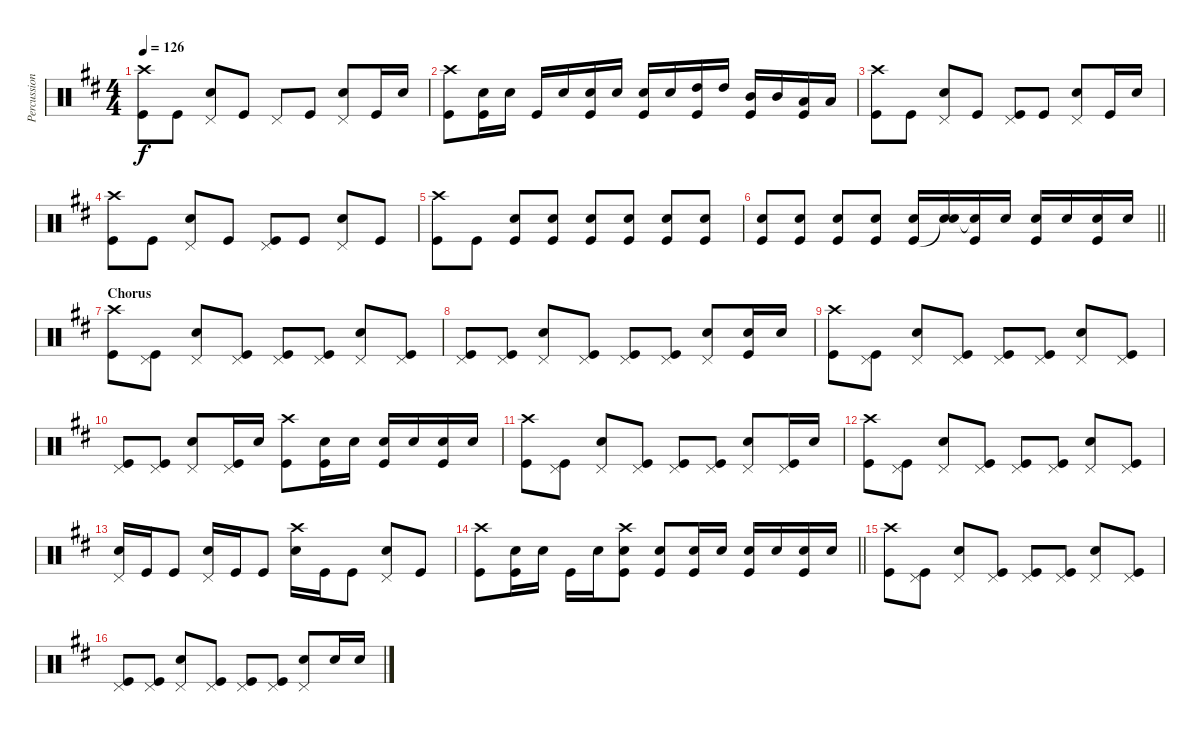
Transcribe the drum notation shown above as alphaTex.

\track ("Percussion" "Percussion") {instrument percussion}
\staff {score}
\articulation defaults
\ts (4 4)
\tempo 126
\clef neutral
\ks d
("Crash high (hit)" "Kick (hit)").8{dy f} "Kick (hit)".8 ("Pedal Hi-Hat (hit)" "Snare (hit) 2").8 "Kick (hit)".8 "Pedal Hi-Hat (hit)".8 "Kick (hit)".8 ("Pedal Hi-Hat (hit)" "Snare (hit) 2").8 "Kick (hit)".16 "Snare (hit) 2".16 |
("Crash high (hit)" "Kick (hit)").8 ("Snare (hit) 2" "Kick (hit)").16 "Snare (hit) 2".16 "Kick (hit)".16 "Snare (hit) 2".16 ("Snare (hit) 2" "Kick (hit)").16 "Snare (hit) 2".16 ("Snare (hit) 2" "Kick (hit)").16 "Snare (hit) 2".16 ("High Tom (hit)" "Kick (hit)").16 "High Tom (hit)".16 ("Mid Tom (hit)" "Kick (hit)").16 "Mid Tom (hit)".16 ("Low Tom (hit)" "Kick (hit)").16 "Low Tom (hit)".16 |
("Crash high (hit)" "Kick (hit)").8 "Kick (hit)".8 ("Pedal Hi-Hat (hit)" "Snare (hit) 2").8 "Kick (hit)".8 ("Pedal Hi-Hat (hit)" "Kick (hit)").8 "Kick (hit)".8 ("Pedal Hi-Hat (hit)" "Snare (hit) 2").8 "Kick (hit)".16 "Snare (hit) 2".16 |
("Crash high (hit)" "Kick (hit)").8 "Kick (hit)".8 ("Pedal Hi-Hat (hit)" "Snare (hit) 2").8 "Kick (hit)".8 ("Pedal Hi-Hat (hit)" "Kick (hit)").8 "Kick (hit)".8 ("Pedal Hi-Hat (hit)" "Snare (hit) 2").8 "Kick (hit)".8 |
("Crash high (hit)" "Kick (hit)").8 "Kick (hit)".8 ("Snare (hit) 2" "Kick (hit)").8 ("Snare (hit) 2" "Kick (hit)").8 ("Snare (hit) 2" "Kick (hit)").8 ("Snare (hit) 2" "Kick (hit)").8 ("Snare (hit) 2" "Kick (hit)").8 ("Snare (hit) 2" "Kick (hit)").8 |
\barLineRight lightlight
("Snare (hit) 2" "Kick (hit)").8 ("Snare (hit) 2" "Kick (hit)").8 ("Snare (hit) 2" "Kick (hit)").8 ("Snare (hit) 2" "Kick (hit)").8 ("Snare (hit) 2" "Kick (hit)").16 ("Snare (hit) 2" "Snare (hit)"{t}).16 ("Snare (hit) 2"{t} "Kick (hit)").16 "Snare (hit) 2".16 ("Snare (hit) 2" "Kick (hit)").16 "Snare (hit) 2".16 ("Snare (hit) 2" "Kick (hit)").16 "Snare (hit) 2".16 |
\section ("" "Chorus")
("Crash high (hit)" "Kick (hit)").8 ("Pedal Hi-Hat (hit)" "Kick (hit)").8 ("Pedal Hi-Hat (hit)" "Snare (hit) 2").8 ("Pedal Hi-Hat (hit)" "Kick (hit)").8 ("Pedal Hi-Hat (hit)" "Kick (hit)").8 ("Pedal Hi-Hat (hit)" "Kick (hit)").8 ("Pedal Hi-Hat (hit)" "Snare (hit) 2").8 ("Pedal Hi-Hat (hit)" "Kick (hit)").8 |
("Pedal Hi-Hat (hit)" "Kick (hit)").8 ("Pedal Hi-Hat (hit)" "Kick (hit)").8 ("Pedal Hi-Hat (hit)" "Snare (hit) 2").8 ("Pedal Hi-Hat (hit)" "Kick (hit)").8 ("Pedal Hi-Hat (hit)" "Kick (hit)").8 ("Pedal Hi-Hat (hit)" "Kick (hit)").8 ("Pedal Hi-Hat (hit)" "Snare (hit) 2").8 ("Snare (hit) 2" "Kick (hit)").16 "Snare (hit) 2".16 |
("Crash high (hit)" "Kick (hit)").8 ("Pedal Hi-Hat (hit)" "Kick (hit)").8 ("Pedal Hi-Hat (hit)" "Snare (hit) 2").8 ("Pedal Hi-Hat (hit)" "Kick (hit)").8 ("Pedal Hi-Hat (hit)" "Kick (hit)").8 ("Pedal Hi-Hat (hit)" "Kick (hit)").8 ("Pedal Hi-Hat (hit)" "Snare (hit) 2").8 ("Pedal Hi-Hat (hit)" "Kick (hit)").8 |
("Pedal Hi-Hat (hit)" "Kick (hit)").8 ("Pedal Hi-Hat (hit)" "Kick (hit)").8 ("Pedal Hi-Hat (hit)" "Snare (hit) 2").8 ("Pedal Hi-Hat (hit)" "Kick (hit)").16 "Snare (hit) 2".16 ("Crash high (hit)" "Kick (hit)").8 ("Snare (hit) 2" "Kick (hit)").16 "Snare (hit) 2".16 ("Snare (hit) 2" "Kick (hit)").16 "Snare (hit) 2".16 ("Snare (hit) 2" "Kick (hit)").16 "Snare (hit) 2".16 |
("Crash high (hit)" "Kick (hit)").8 ("Pedal Hi-Hat (hit)" "Kick (hit)").8 ("Pedal Hi-Hat (hit)" "Snare (hit) 2").8 ("Pedal Hi-Hat (hit)" "Kick (hit)").8 ("Pedal Hi-Hat (hit)" "Kick (hit)").8 ("Pedal Hi-Hat (hit)" "Kick (hit)").8 ("Pedal Hi-Hat (hit)" "Snare (hit) 2").8 ("Pedal Hi-Hat (hit)" "Kick (hit)").16 "Snare (hit) 2".16 |
("Crash high (hit)" "Kick (hit)").8 ("Pedal Hi-Hat (hit)" "Kick (hit)").8 ("Pedal Hi-Hat (hit)" "Snare (hit) 2").8 ("Pedal Hi-Hat (hit)" "Kick (hit)").8 ("Pedal Hi-Hat (hit)" "Kick (hit)").8 ("Pedal Hi-Hat (hit)" "Kick (hit)").8 ("Pedal Hi-Hat (hit)" "Snare (hit) 2").8 ("Pedal Hi-Hat (hit)" "Kick (hit)").8 |
("Pedal Hi-Hat (hit)" "Snare (hit) 2").16 "Kick (hit)".16 "Kick (hit)".8 ("Pedal Hi-Hat (hit)" "Snare (hit) 2").16 "Kick (hit)".16 "Kick (hit)".8 ("Crash high (hit)" "Snare (hit) 2").16 "Kick (hit)".16 "Kick (hit)".8 ("Pedal Hi-Hat (hit)" "Snare (hit) 2").8 "Kick (hit)".8 |
\barLineRight lightlight
("Crash high (hit)" "Kick (hit)").8 ("Snare (hit) 2" "Kick (hit)").16 "Snare (hit) 2".16 "Kick (hit)".16 "Snare (hit) 2".16 ("Crash high (hit)" "Snare (hit) 2" "Kick (hit)").8 ("Snare (hit) 2" "Kick (hit)").8 ("Snare (hit) 2" "Kick (hit)").16 "Snare (hit) 2".16 ("Snare (hit) 2" "Kick (hit)").16 "Snare (hit) 2".16 ("Snare (hit) 2" "Kick (hit)").16 "Snare (hit) 2".16 |
("Crash high (hit)" "Kick (hit)").8 ("Pedal Hi-Hat (hit)" "Kick (hit)").8 ("Pedal Hi-Hat (hit)" "Snare (hit) 2").8 ("Pedal Hi-Hat (hit)" "Kick (hit)").8 ("Pedal Hi-Hat (hit)" "Kick (hit)").8 ("Pedal Hi-Hat (hit)" "Kick (hit)").8 ("Pedal Hi-Hat (hit)" "Snare (hit) 2").8 ("Pedal Hi-Hat (hit)" "Kick (hit)").8 |
("Pedal Hi-Hat (hit)" "Kick (hit)").8 ("Pedal Hi-Hat (hit)" "Kick (hit)").8 ("Pedal Hi-Hat (hit)" "Snare (hit) 2").8 ("Pedal Hi-Hat (hit)" "Kick (hit)").8 ("Pedal Hi-Hat (hit)" "Kick (hit)").8 ("Pedal Hi-Hat (hit)" "Kick (hit)").8 ("Pedal Hi-Hat (hit)" "Snare (hit) 2").8 "Snare (hit) 2".16 "Snare (hit) 2".16
